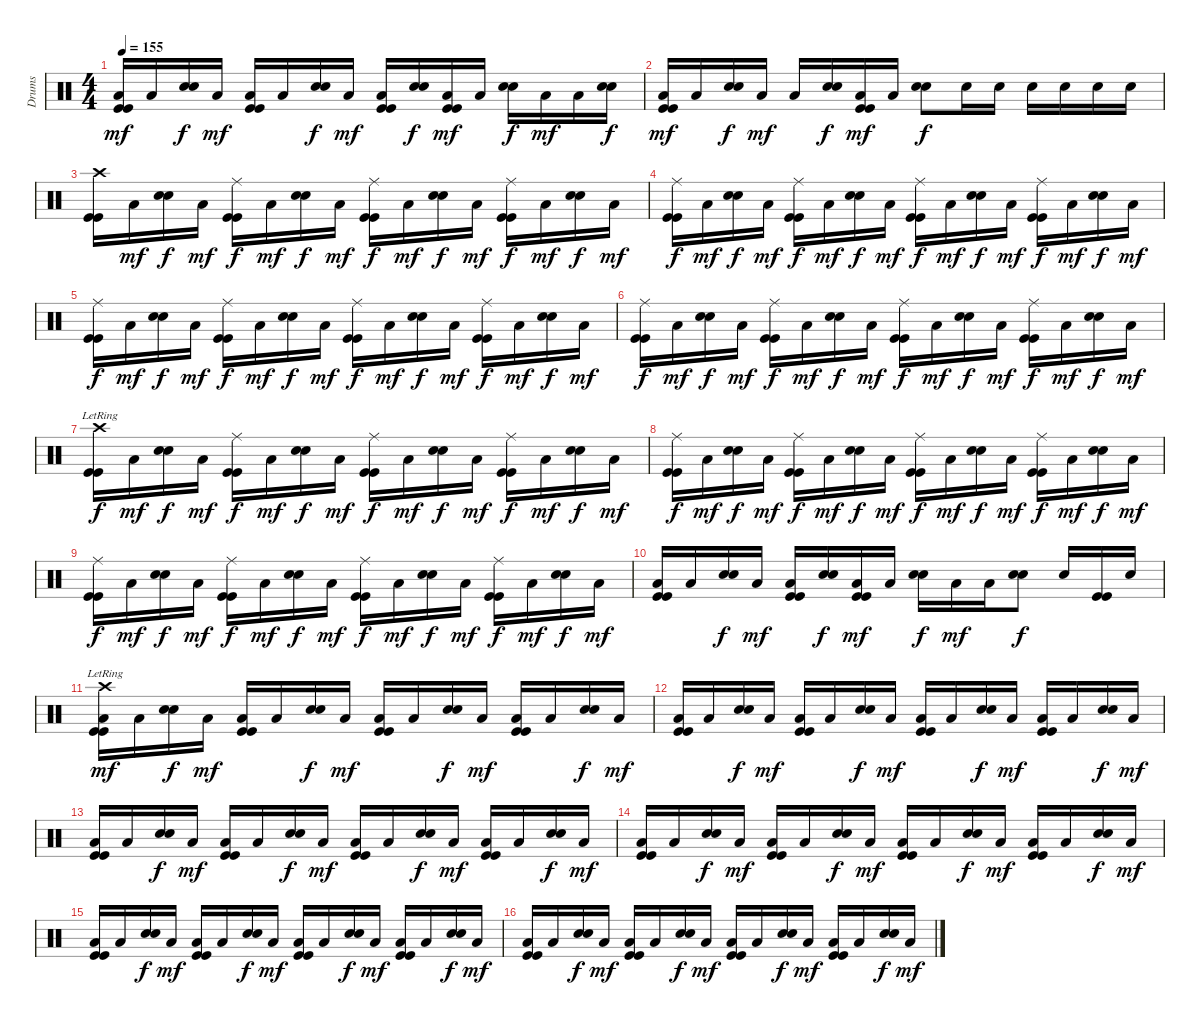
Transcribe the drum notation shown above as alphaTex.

\track ("Drums" "Drums") {instrument percussion}
\staff {score}
\articulation defaults
\ts (4 4)
\tempo 155
\clef neutral
\ks c
("Low Tom (hit)" "Kick (hit)" "Kick (hit)").16{dy mf} "Low Tom (hit)".16 ("Snare (hit) 2" "Snare (hit) 2").16{dy f} "Low Tom (hit)".16{dy mf} ("Low Tom (hit)" "Kick (hit)" "Kick (hit)").16 "Low Tom (hit)".16 ("Snare (hit) 2" "Snare (hit) 2").16{dy f} "Low Tom (hit)".16{dy mf} ("Low Tom (hit)" "Kick (hit)" "Kick (hit)").16 ("Snare (hit) 2" "Snare (hit) 2").16{dy f} ("Low Tom (hit)" "Kick (hit)" "Kick (hit)").16{dy mf} "Low Tom (hit)".16 ("Snare (hit) 2" "Snare (hit) 2").16{dy f} "Low Tom (hit)".16{dy mf} "Low Tom (hit)".16 ("Snare (hit) 2" "Snare (hit) 2").16{dy f} |
("Low Tom (hit)" "Kick (hit)" "Kick (hit)").16{dy mf} "Low Tom (hit)".16 ("Snare (hit) 2" "Snare (hit) 2").16{dy f} "Low Tom (hit)".16{dy mf} "Low Tom (hit)".16 ("Snare (hit) 2" "Snare (hit) 2").16{dy f} ("Low Tom (hit)" "Kick (hit)" "Kick (hit)").16{dy mf} "Low Tom (hit)".16 ("Snare (hit) 2" "Snare (hit) 2").8{dy f} "Snare (hit) 2".16 "Snare (hit) 2".16 "Snare (hit) 2".16 "Snare (hit) 2".16 "Snare (hit) 2".16 "Snare (hit) 2".16 |
("Crash high (hit)" "Kick (hit)" "Kick (hit)").16 "Low Tom (hit)".16{dy mf} ("Snare (hit) 2" "Snare (hit) 2").16{dy f} "Low Tom (hit)".16{dy mf} ("Ride (middle)" "Kick (hit)" "Kick (hit)").16{dy f} "Low Tom (hit)".16{dy mf} ("Snare (hit) 2" "Snare (hit) 2").16{dy f} "Low Tom (hit)".16{dy mf} ("Ride (middle)" "Kick (hit)" "Kick (hit)").16{dy f} "Low Tom (hit)".16{dy mf} ("Snare (hit) 2" "Snare (hit) 2").16{dy f} "Low Tom (hit)".16{dy mf} ("Ride (middle)" "Kick (hit)" "Kick (hit)").16{dy f} "Low Tom (hit)".16{dy mf} ("Snare (hit) 2" "Snare (hit) 2").16{dy f} "Low Tom (hit)".16{dy mf} |
("Ride (middle)" "Kick (hit)" "Kick (hit)").16{dy f} "Low Tom (hit)".16{dy mf} ("Snare (hit) 2" "Snare (hit) 2").16{dy f} "Low Tom (hit)".16{dy mf} ("Ride (middle)" "Kick (hit)" "Kick (hit)").16{dy f} "Low Tom (hit)".16{dy mf} ("Snare (hit) 2" "Snare (hit) 2").16{dy f} "Low Tom (hit)".16{dy mf} ("Ride (middle)" "Kick (hit)" "Kick (hit)").16{dy f} "Low Tom (hit)".16{dy mf} ("Snare (hit) 2" "Snare (hit) 2").16{dy f} "Low Tom (hit)".16{dy mf} ("Ride (middle)" "Kick (hit)" "Kick (hit)").16{dy f} "Low Tom (hit)".16{dy mf} ("Snare (hit) 2" "Snare (hit) 2").16{dy f} "Low Tom (hit)".16{dy mf} |
("Ride (middle)" "Kick (hit)" "Kick (hit)").16{dy f} "Low Tom (hit)".16{dy mf} ("Snare (hit) 2" "Snare (hit) 2").16{dy f} "Low Tom (hit)".16{dy mf} ("Ride (middle)" "Kick (hit)" "Kick (hit)").16{dy f} "Low Tom (hit)".16{dy mf} ("Snare (hit) 2" "Snare (hit) 2").16{dy f} "Low Tom (hit)".16{dy mf} ("Ride (middle)" "Kick (hit)" "Kick (hit)").16{dy f} "Low Tom (hit)".16{dy mf} ("Snare (hit) 2" "Snare (hit) 2").16{dy f} "Low Tom (hit)".16{dy mf} ("Ride (middle)" "Kick (hit)" "Kick (hit)").16{dy f} "Low Tom (hit)".16{dy mf} ("Snare (hit) 2" "Snare (hit) 2").16{dy f} "Low Tom (hit)".16{dy mf} |
("Ride (middle)" "Kick (hit)" "Kick (hit)").16{dy f} "Low Tom (hit)".16{dy mf} ("Snare (hit) 2" "Snare (hit) 2").16{dy f} "Low Tom (hit)".16{dy mf} ("Ride (middle)" "Kick (hit)" "Kick (hit)").16{dy f} "Low Tom (hit)".16{dy mf} ("Snare (hit) 2" "Snare (hit) 2").16{dy f} "Low Tom (hit)".16{dy mf} ("Ride (middle)" "Kick (hit)" "Kick (hit)").16{dy f} "Low Tom (hit)".16{dy mf} ("Snare (hit) 2" "Snare (hit) 2").16{dy f} "Low Tom (hit)".16{dy mf} ("Ride (middle)" "Kick (hit)" "Kick (hit)").16{dy f} "Low Tom (hit)".16{dy mf} ("Snare (hit) 2" "Snare (hit) 2").16{dy f} "Low Tom (hit)".16{dy mf} |
("Crash high (hit)"{lr} "Kick (hit)" "Kick (hit)").16{dy f} "Low Tom (hit)".16{dy mf} ("Snare (hit) 2" "Snare (hit) 2").16{dy f} "Low Tom (hit)".16{dy mf} ("Ride (middle)" "Kick (hit)" "Kick (hit)").16{dy f} "Low Tom (hit)".16{dy mf} ("Snare (hit) 2" "Snare (hit) 2").16{dy f} "Low Tom (hit)".16{dy mf} ("Ride (middle)" "Kick (hit)" "Kick (hit)").16{dy f} "Low Tom (hit)".16{dy mf} ("Snare (hit) 2" "Snare (hit) 2").16{dy f} "Low Tom (hit)".16{dy mf} ("Ride (middle)" "Kick (hit)" "Kick (hit)").16{dy f} "Low Tom (hit)".16{dy mf} ("Snare (hit) 2" "Snare (hit) 2").16{dy f} "Low Tom (hit)".16{dy mf} |
("Ride (middle)" "Kick (hit)" "Kick (hit)").16{dy f} "Low Tom (hit)".16{dy mf} ("Snare (hit) 2" "Snare (hit) 2").16{dy f} "Low Tom (hit)".16{dy mf} ("Ride (middle)" "Kick (hit)" "Kick (hit)").16{dy f} "Low Tom (hit)".16{dy mf} ("Snare (hit) 2" "Snare (hit) 2").16{dy f} "Low Tom (hit)".16{dy mf} ("Ride (middle)" "Kick (hit)" "Kick (hit)").16{dy f} "Low Tom (hit)".16{dy mf} ("Snare (hit) 2" "Snare (hit) 2").16{dy f} "Low Tom (hit)".16{dy mf} ("Ride (middle)" "Kick (hit)" "Kick (hit)").16{dy f} "Low Tom (hit)".16{dy mf} ("Snare (hit) 2" "Snare (hit) 2").16{dy f} "Low Tom (hit)".16{dy mf} |
("Ride (middle)" "Kick (hit)" "Kick (hit)").16{dy f} "Low Tom (hit)".16{dy mf} ("Snare (hit) 2" "Snare (hit) 2").16{dy f} "Low Tom (hit)".16{dy mf} ("Ride (middle)" "Kick (hit)" "Kick (hit)").16{dy f} "Low Tom (hit)".16{dy mf} ("Snare (hit) 2" "Snare (hit) 2").16{dy f} "Low Tom (hit)".16{dy mf} ("Ride (middle)" "Kick (hit)" "Kick (hit)").16{dy f} "Low Tom (hit)".16{dy mf} ("Snare (hit) 2" "Snare (hit) 2").16{dy f} "Low Tom (hit)".16{dy mf} ("Ride (middle)" "Kick (hit)" "Kick (hit)").16{dy f} "Low Tom (hit)".16{dy mf} ("Snare (hit) 2" "Snare (hit) 2").16{dy f} "Low Tom (hit)".16{dy mf} |
("Low Tom (hit)" "Kick (hit)" "Kick (hit)").16 "Low Tom (hit)".16 ("Snare (hit) 2" "Snare (hit) 2").16{dy f} "Low Tom (hit)".16{dy mf} ("Low Tom (hit)" "Kick (hit)" "Kick (hit)").16 ("Snare (hit) 2" "Snare (hit) 2").16{dy f} ("Low Tom (hit)" "Kick (hit)" "Kick (hit)").16{dy mf} "Low Tom (hit)".16 ("Snare (hit) 2" "Snare (hit) 2").16{dy f} "Low Tom (hit)".16{dy mf} "Low Tom (hit)".16 ("Snare (hit) 2" "Snare (hit) 2").8{dy f} "Snare (hit) 2".16 ("Kick (hit)" "Kick (hit)").16 "Snare (hit) 2".16 |
("Crash high (hit)"{lr} "Low Tom (hit)" "Kick (hit)" "Kick (hit)").16{dy mf} "Low Tom (hit)".16 ("Snare (hit) 2" "Snare (hit) 2").16{dy f} "Low Tom (hit)".16{dy mf} ("Low Tom (hit)" "Kick (hit)" "Kick (hit)").16 "Low Tom (hit)".16 ("Snare (hit) 2" "Snare (hit) 2").16{dy f} "Low Tom (hit)".16{dy mf} ("Low Tom (hit)" "Kick (hit)" "Kick (hit)").16 "Low Tom (hit)".16 ("Snare (hit) 2" "Snare (hit) 2").16{dy f} "Low Tom (hit)".16{dy mf} ("Low Tom (hit)" "Kick (hit)" "Kick (hit)").16 "Low Tom (hit)".16 ("Snare (hit) 2" "Snare (hit) 2").16{dy f} "Low Tom (hit)".16{dy mf} |
("Low Tom (hit)" "Kick (hit)" "Kick (hit)").16 "Low Tom (hit)".16 ("Snare (hit) 2" "Snare (hit) 2").16{dy f} "Low Tom (hit)".16{dy mf} ("Low Tom (hit)" "Kick (hit)" "Kick (hit)").16 "Low Tom (hit)".16 ("Snare (hit) 2" "Snare (hit) 2").16{dy f} "Low Tom (hit)".16{dy mf} ("Low Tom (hit)" "Kick (hit)" "Kick (hit)").16 "Low Tom (hit)".16 ("Snare (hit) 2" "Snare (hit) 2").16{dy f} "Low Tom (hit)".16{dy mf} ("Low Tom (hit)" "Kick (hit)" "Kick (hit)").16 "Low Tom (hit)".16 ("Snare (hit) 2" "Snare (hit) 2").16{dy f} "Low Tom (hit)".16{dy mf} |
("Low Tom (hit)" "Kick (hit)" "Kick (hit)").16 "Low Tom (hit)".16 ("Snare (hit) 2" "Snare (hit) 2").16{dy f} "Low Tom (hit)".16{dy mf} ("Low Tom (hit)" "Kick (hit)" "Kick (hit)").16 "Low Tom (hit)".16 ("Snare (hit) 2" "Snare (hit) 2").16{dy f} "Low Tom (hit)".16{dy mf} ("Low Tom (hit)" "Kick (hit)" "Kick (hit)").16 "Low Tom (hit)".16 ("Snare (hit) 2" "Snare (hit) 2").16{dy f} "Low Tom (hit)".16{dy mf} ("Low Tom (hit)" "Kick (hit)" "Kick (hit)").16 "Low Tom (hit)".16 ("Snare (hit) 2" "Snare (hit) 2").16{dy f} "Low Tom (hit)".16{dy mf} |
("Low Tom (hit)" "Kick (hit)" "Kick (hit)").16 "Low Tom (hit)".16 ("Snare (hit) 2" "Snare (hit) 2").16{dy f} "Low Tom (hit)".16{dy mf} ("Low Tom (hit)" "Kick (hit)" "Kick (hit)").16 "Low Tom (hit)".16 ("Snare (hit) 2" "Snare (hit) 2").16{dy f} "Low Tom (hit)".16{dy mf} ("Low Tom (hit)" "Kick (hit)" "Kick (hit)").16 "Low Tom (hit)".16 ("Snare (hit) 2" "Snare (hit) 2").16{dy f} "Low Tom (hit)".16{dy mf} ("Low Tom (hit)" "Kick (hit)" "Kick (hit)").16 "Low Tom (hit)".16 ("Snare (hit) 2" "Snare (hit) 2").16{dy f} "Low Tom (hit)".16{dy mf} |
("Low Tom (hit)" "Kick (hit)" "Kick (hit)").16 "Low Tom (hit)".16 ("Snare (hit) 2" "Snare (hit) 2").16{dy f} "Low Tom (hit)".16{dy mf} ("Low Tom (hit)" "Kick (hit)" "Kick (hit)").16 "Low Tom (hit)".16 ("Snare (hit) 2" "Snare (hit) 2").16{dy f} "Low Tom (hit)".16{dy mf} ("Low Tom (hit)" "Kick (hit)" "Kick (hit)").16 "Low Tom (hit)".16 ("Snare (hit) 2" "Snare (hit) 2").16{dy f} "Low Tom (hit)".16{dy mf} ("Low Tom (hit)" "Kick (hit)" "Kick (hit)").16 "Low Tom (hit)".16 ("Snare (hit) 2" "Snare (hit) 2").16{dy f} "Low Tom (hit)".16{dy mf} |
("Low Tom (hit)" "Kick (hit)" "Kick (hit)").16 "Low Tom (hit)".16 ("Snare (hit) 2" "Snare (hit) 2").16{dy f} "Low Tom (hit)".16{dy mf} ("Low Tom (hit)" "Kick (hit)" "Kick (hit)").16 "Low Tom (hit)".16 ("Snare (hit) 2" "Snare (hit) 2").16{dy f} "Low Tom (hit)".16{dy mf} ("Low Tom (hit)" "Kick (hit)" "Kick (hit)").16 "Low Tom (hit)".16 ("Snare (hit) 2" "Snare (hit) 2").16{dy f} "Low Tom (hit)".16{dy mf} ("Low Tom (hit)" "Kick (hit)" "Kick (hit)").16 "Low Tom (hit)".16 ("Snare (hit) 2" "Snare (hit) 2").16{dy f} "Low Tom (hit)".16{dy mf}
